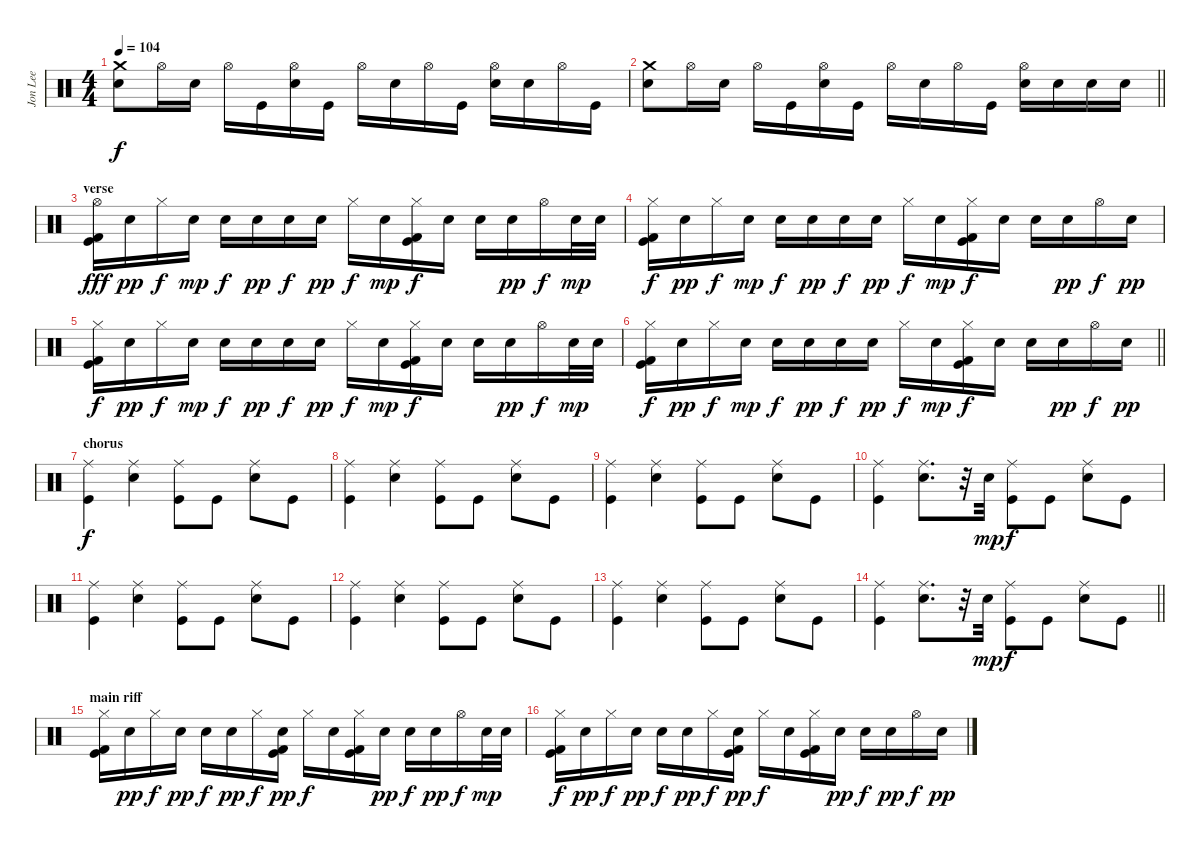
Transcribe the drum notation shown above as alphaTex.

\track ("Jon Lee" "Jon Lee") {instrument percussion}
\staff {score}
\articulation defaults
\ts (4 4)
\tempo 104
\clef neutral
\ks c
("Crash medium (hit)" "Electric Snare (hit)").8{dy f} "Hi-Hat (open)".16 "Electric Snare (hit)".16 "Hi-Hat (open)".16 "Kick (hit)".16 ("Hi-Hat (open)" "Electric Snare (hit)").16 "Kick (hit)".16 "Hi-Hat (open)".16 "Electric Snare (hit)".16 "Hi-Hat (open)".16 "Kick (hit)".16 ("Hi-Hat (open)" "Electric Snare (hit)").16 "Electric Snare (hit)".16 "Hi-Hat (open)".16 "Kick (hit)".16 |
\barLineRight lightlight
("Crash medium (hit)" "Electric Snare (hit)").8 "Hi-Hat (open)".16 "Electric Snare (hit)".16 "Hi-Hat (open)".16 "Kick (hit)".16 ("Hi-Hat (open)" "Electric Snare (hit)").16 "Kick (hit)".16 "Hi-Hat (open)".16 "Electric Snare (hit)".16 "Hi-Hat (open)".16 "Kick (hit)".16 ("Hi-Hat (open)" "Electric Snare (hit)").16 "Electric Snare (hit)".16 "Electric Snare (hit)".16 "Electric Snare (hit)".16 |
\section ("" "verse")
("Hi-Hat (open)" "Kick (hit)" "Kick (hit) 2").16{dy fff} "Electric Snare (hit)".16{dy pp} "Hi-Hat (closed)".16{dy f} "Electric Snare (hit)".16{dy mp} "Electric Snare (hit)".16{dy f} "Electric Snare (hit)".16{dy pp} "Electric Snare (hit)".16{dy f} "Electric Snare (hit)".16{dy pp} "Hi-Hat (closed)".16{dy f} "Electric Snare (hit)".16{dy mp} ("Hi-Hat (closed)" "Kick (hit)" "Kick (hit) 2").16{dy f} "Electric Snare (hit)".16 "Electric Snare (hit)".16 "Electric Snare (hit)".16{dy pp} "Hi-Hat (open)".16{dy f} "Electric Snare (hit)".32{dy mp} "Electric Snare (hit)".32 |
("Hi-Hat (closed)" "Kick (hit)" "Kick (hit) 2").16{dy f} "Electric Snare (hit)".16{dy pp} "Hi-Hat (closed)".16{dy f} "Electric Snare (hit)".16{dy mp} "Electric Snare (hit)".16{dy f} "Electric Snare (hit)".16{dy pp} "Electric Snare (hit)".16{dy f} "Electric Snare (hit)".16{dy pp} "Hi-Hat (closed)".16{dy f} "Electric Snare (hit)".16{dy mp} ("Hi-Hat (closed)" "Kick (hit)" "Kick (hit) 2").16{dy f} "Electric Snare (hit)".16 "Electric Snare (hit)".16 "Electric Snare (hit)".16{dy pp} "Hi-Hat (open)".16{dy f} "Electric Snare (hit)".16{dy pp} |
("Hi-Hat (closed)" "Kick (hit)" "Kick (hit) 2").16{dy f} "Electric Snare (hit)".16{dy pp} "Hi-Hat (closed)".16{dy f} "Electric Snare (hit)".16{dy mp} "Electric Snare (hit)".16{dy f} "Electric Snare (hit)".16{dy pp} "Electric Snare (hit)".16{dy f} "Electric Snare (hit)".16{dy pp} "Hi-Hat (closed)".16{dy f} "Electric Snare (hit)".16{dy mp} ("Hi-Hat (closed)" "Kick (hit)" "Kick (hit) 2").16{dy f} "Electric Snare (hit)".16 "Electric Snare (hit)".16 "Electric Snare (hit)".16{dy pp} "Hi-Hat (open)".16{dy f} "Electric Snare (hit)".32{dy mp} "Electric Snare (hit)".32 |
\barLineRight lightlight
("Hi-Hat (closed)" "Kick (hit)" "Kick (hit) 2").16{dy f} "Electric Snare (hit)".16{dy pp} "Hi-Hat (closed)".16{dy f} "Electric Snare (hit)".16{dy mp} "Electric Snare (hit)".16{dy f} "Electric Snare (hit)".16{dy pp} "Electric Snare (hit)".16{dy f} "Electric Snare (hit)".16{dy pp} "Hi-Hat (closed)".16{dy f} "Electric Snare (hit)".16{dy mp} ("Hi-Hat (closed)" "Kick (hit)" "Kick (hit) 2").16{dy f} "Electric Snare (hit)".16 "Electric Snare (hit)".16 "Electric Snare (hit)".16{dy pp} "Hi-Hat (open)".16{dy f} "Electric Snare (hit)".16{dy pp} |
\section ("" "chorus")
("Ride (middle)" "Kick (hit)").4{dy f} ("Ride (middle)" "Electric Snare (hit)").4 ("Ride (middle)" "Kick (hit)").8 "Kick (hit)".8 ("Ride (middle)" "Electric Snare (hit)").8 "Kick (hit)".8 |
("Ride (middle)" "Kick (hit)").4 ("Ride (middle)" "Electric Snare (hit)").4 ("Ride (middle)" "Kick (hit)").8 "Kick (hit)".8 ("Ride (middle)" "Electric Snare (hit)").8 "Kick (hit)".8 |
("Ride (middle)" "Kick (hit)").4 ("Ride (middle)" "Electric Snare (hit)").4 ("Ride (middle)" "Kick (hit)").8 "Kick (hit)".8 ("Ride (middle)" "Electric Snare (hit)").8 "Kick (hit)".8 |
("Ride (middle)" "Kick (hit)").4 ("Ride (middle)" "Electric Snare (hit)").8{d} r.32 "Electric Snare (hit)".32{dy mp} ("Ride (middle)" "Kick (hit)").8{dy f} "Kick (hit)".8 ("Ride (middle)" "Electric Snare (hit)").8 "Kick (hit)".8 |
("Ride (middle)" "Kick (hit)").4 ("Ride (middle)" "Electric Snare (hit)").4 ("Ride (middle)" "Kick (hit)").8 "Kick (hit)".8 ("Ride (middle)" "Electric Snare (hit)").8 "Kick (hit)".8 |
("Ride (middle)" "Kick (hit)").4 ("Ride (middle)" "Electric Snare (hit)").4 ("Ride (middle)" "Kick (hit)").8 "Kick (hit)".8 ("Ride (middle)" "Electric Snare (hit)").8 "Kick (hit)".8 |
("Ride (middle)" "Kick (hit)").4 ("Ride (middle)" "Electric Snare (hit)").4 ("Ride (middle)" "Kick (hit)").8 "Kick (hit)".8 ("Ride (middle)" "Electric Snare (hit)").8 "Kick (hit)".8 |
\barLineRight lightlight
("Ride (middle)" "Kick (hit)").4 ("Ride (middle)" "Electric Snare (hit)").8{d} r.32 "Electric Snare (hit)".32{dy mp} ("Ride (middle)" "Kick (hit)").8{dy f} "Kick (hit)".8 ("Ride (middle)" "Electric Snare (hit)").8 "Kick (hit)".8 |
\section ("" "main riff")
("Hi-Hat (closed)" "Kick (hit)" "Kick (hit) 2").16 "Electric Snare (hit)".16{dy pp} "Hi-Hat (closed)".16{dy f} "Electric Snare (hit)".16{dy pp} "Electric Snare (hit)".16{dy f} "Electric Snare (hit)".16{dy pp} "Hi-Hat (closed)".16{dy f} ("Electric Snare (hit)" "Kick (hit)" "Kick (hit) 2").16{dy pp} "Hi-Hat (closed)".16{dy f} "Electric Snare (hit)".16 ("Hi-Hat (closed)" "Kick (hit)" "Kick (hit) 2").16 "Electric Snare (hit)".16{dy pp} "Electric Snare (hit)".16{dy f} "Electric Snare (hit)".16{dy pp} "Hi-Hat (open)".16{dy f} "Electric Snare (hit)".32{dy mp} "Electric Snare (hit)".32 |
("Hi-Hat (closed)" "Kick (hit)" "Kick (hit) 2").16{dy f} "Electric Snare (hit)".16{dy pp} "Hi-Hat (closed)".16{dy f} "Electric Snare (hit)".16{dy pp} "Electric Snare (hit)".16{dy f} "Electric Snare (hit)".16{dy pp} "Hi-Hat (closed)".16{dy f} ("Electric Snare (hit)" "Kick (hit)" "Kick (hit) 2").16{dy pp} "Hi-Hat (closed)".16{dy f} "Electric Snare (hit)".16 ("Hi-Hat (closed)" "Kick (hit)" "Kick (hit) 2").16 "Electric Snare (hit)".16{dy pp} "Electric Snare (hit)".16{dy f} "Electric Snare (hit)".16{dy pp} "Hi-Hat (open)".16{dy f} "Electric Snare (hit)".16{dy pp}
